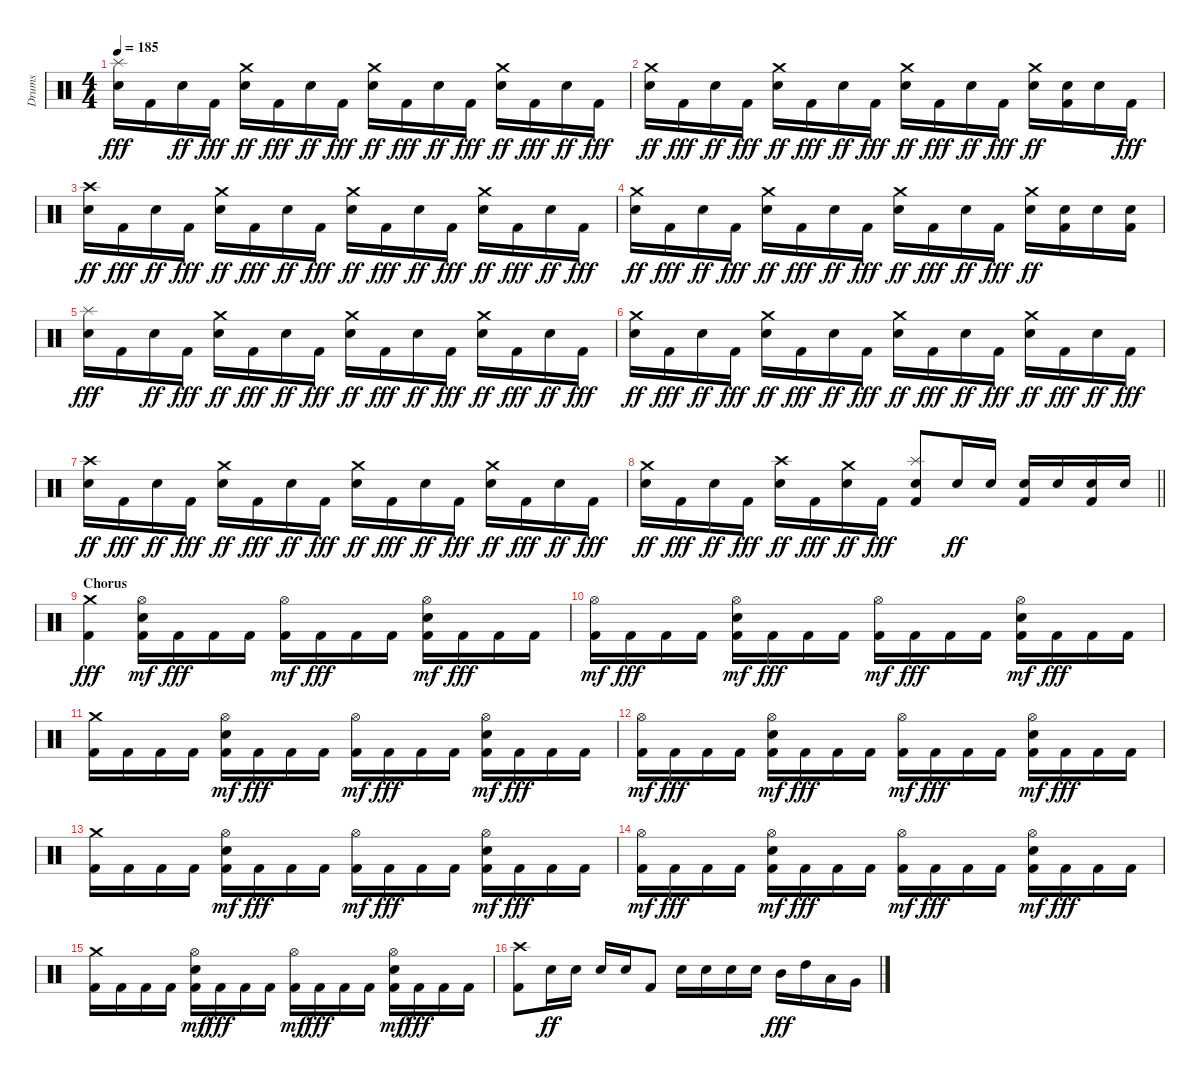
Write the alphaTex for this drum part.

\track ("Drums" "Drums") {instrument percussion}
\staff {score}
\articulation defaults
\ts (4 4)
\tempo 185
\clef neutral
\ks c
("Snare (hit) 2" "Splash (hit)").16{dy fff} "Kick (hit) 2".16 "Snare (hit) 2".16{dy ff} "Kick (hit) 2".16{dy fff} ("Snare (hit) 2" "Crash medium (hit)").16{dy ff} "Kick (hit) 2".16{dy fff} "Snare (hit) 2".16{dy ff} "Kick (hit) 2".16{dy fff} ("Snare (hit) 2" "Crash medium (hit)").16{dy ff} "Kick (hit) 2".16{dy fff} "Snare (hit) 2".16{dy ff} "Kick (hit) 2".16{dy fff} ("Snare (hit) 2" "Crash medium (hit)").16{dy ff} "Kick (hit) 2".16{dy fff} "Snare (hit) 2".16{dy ff} "Kick (hit) 2".16{dy fff} |
("Snare (hit) 2" "Crash medium (hit)").16{dy ff} "Kick (hit) 2".16{dy fff} "Snare (hit) 2".16{dy ff} "Kick (hit) 2".16{dy fff} ("Snare (hit) 2" "Crash medium (hit)").16{dy ff} "Kick (hit) 2".16{dy fff} "Snare (hit) 2".16{dy ff} "Kick (hit) 2".16{dy fff} ("Snare (hit) 2" "Crash medium (hit)").16{dy ff} "Kick (hit) 2".16{dy fff} "Snare (hit) 2".16{dy ff} "Kick (hit) 2".16{dy fff} ("Snare (hit) 2" "Crash medium (hit)").16{dy ff} ("Kick (hit) 2" "Snare (hit) 2").16 "Snare (hit) 2".16 "Kick (hit) 2".16{dy fff} |
("Snare (hit) 2" "Crash high (hit)").16{dy ff} "Kick (hit) 2".16{dy fff} "Snare (hit) 2".16{dy ff} "Kick (hit) 2".16{dy fff} ("Snare (hit) 2" "Crash medium (hit)").16{dy ff} "Kick (hit) 2".16{dy fff} "Snare (hit) 2".16{dy ff} "Kick (hit) 2".16{dy fff} ("Snare (hit) 2" "Crash medium (hit)").16{dy ff} "Kick (hit) 2".16{dy fff} "Snare (hit) 2".16{dy ff} "Kick (hit) 2".16{dy fff} ("Snare (hit) 2" "Crash medium (hit)").16{dy ff} "Kick (hit) 2".16{dy fff} "Snare (hit) 2".16{dy ff} "Kick (hit) 2".16{dy fff} |
("Snare (hit) 2" "Crash medium (hit)").16{dy ff} "Kick (hit) 2".16{dy fff} "Snare (hit) 2".16{dy ff} "Kick (hit) 2".16{dy fff} ("Snare (hit) 2" "Crash medium (hit)").16{dy ff} "Kick (hit) 2".16{dy fff} "Snare (hit) 2".16{dy ff} "Kick (hit) 2".16{dy fff} ("Snare (hit) 2" "Crash medium (hit)").16{dy ff} "Kick (hit) 2".16{dy fff} "Snare (hit) 2".16{dy ff} "Kick (hit) 2".16{dy fff} ("Snare (hit) 2" "Crash medium (hit)").16{dy ff} ("Kick (hit) 2" "Snare (hit) 2").16 "Snare (hit) 2".16 ("Kick (hit) 2" "Snare (hit) 2").16 |
("Snare (hit) 2" "Splash (hit)").16{dy fff} "Kick (hit) 2".16 "Snare (hit) 2".16{dy ff} "Kick (hit) 2".16{dy fff} ("Snare (hit) 2" "Crash medium (hit)").16{dy ff} "Kick (hit) 2".16{dy fff} "Snare (hit) 2".16{dy ff} "Kick (hit) 2".16{dy fff} ("Snare (hit) 2" "Crash medium (hit)").16{dy ff} "Kick (hit) 2".16{dy fff} "Snare (hit) 2".16{dy ff} "Kick (hit) 2".16{dy fff} ("Snare (hit) 2" "Crash medium (hit)").16{dy ff} "Kick (hit) 2".16{dy fff} "Snare (hit) 2".16{dy ff} "Kick (hit) 2".16{dy fff} |
("Snare (hit) 2" "Crash medium (hit)").16{dy ff} "Kick (hit) 2".16{dy fff} "Snare (hit) 2".16{dy ff} "Kick (hit) 2".16{dy fff} ("Snare (hit) 2" "Crash medium (hit)").16{dy ff} "Kick (hit) 2".16{dy fff} "Snare (hit) 2".16{dy ff} "Kick (hit) 2".16{dy fff} ("Snare (hit) 2" "Crash medium (hit)").16{dy ff} "Kick (hit) 2".16{dy fff} "Snare (hit) 2".16{dy ff} "Kick (hit) 2".16{dy fff} ("Snare (hit) 2" "Crash medium (hit)").16{dy ff} "Kick (hit) 2".16{dy fff} "Snare (hit) 2".16{dy ff} "Kick (hit) 2".16{dy fff} |
("Snare (hit) 2" "Crash high (hit)").16{dy ff} "Kick (hit) 2".16{dy fff} "Snare (hit) 2".16{dy ff} "Kick (hit) 2".16{dy fff} ("Snare (hit) 2" "Crash medium (hit)").16{dy ff} "Kick (hit) 2".16{dy fff} "Snare (hit) 2".16{dy ff} "Kick (hit) 2".16{dy fff} ("Snare (hit) 2" "Crash medium (hit)").16{dy ff} "Kick (hit) 2".16{dy fff} "Snare (hit) 2".16{dy ff} "Kick (hit) 2".16{dy fff} ("Snare (hit) 2" "Crash medium (hit)").16{dy ff} "Kick (hit) 2".16{dy fff} "Snare (hit) 2".16{dy ff} "Kick (hit) 2".16{dy fff} |
\barLineRight lightlight
("Snare (hit) 2" "Crash medium (hit)").16{dy ff} "Kick (hit) 2".16{dy fff} "Snare (hit) 2".16{dy ff} "Kick (hit) 2".16{dy fff} ("Snare (hit) 2" "Crash high (hit)").16{dy ff} "Kick (hit) 2".16{dy fff} ("Snare (hit) 2" "Crash medium (hit)").16{dy ff} "Kick (hit) 2".16{dy fff} ("Kick (hit) 2" "Snare (hit) 2" "Splash (hit)").8 "Snare (hit) 2".16{dy ff} "Snare (hit) 2".16 ("Kick (hit) 2" "Snare (hit) 2").16 "Snare (hit) 2".16 ("Kick (hit) 2" "Snare (hit) 2").16 "Snare (hit) 2".16 |
\section ("" "Chorus")
("Kick (hit) 2" "Crash medium (hit)").4{dy fff} ("Kick (hit) 2" "Snare (hit) 2" "Hi-Hat (open)").16{dy mf} "Kick (hit) 2".16{dy fff} "Kick (hit) 2".16 "Kick (hit) 2".16 ("Kick (hit) 2" "Hi-Hat (open)").16{dy mf} "Kick (hit) 2".16{dy fff} "Kick (hit) 2".16 "Kick (hit) 2".16 ("Kick (hit) 2" "Snare (hit) 2" "Hi-Hat (open)").16{dy mf} "Kick (hit) 2".16{dy fff} "Kick (hit) 2".16 "Kick (hit) 2".16 |
("Kick (hit) 2" "Hi-Hat (open)").16{dy mf} "Kick (hit) 2".16{dy fff} "Kick (hit) 2".16 "Kick (hit) 2".16 ("Kick (hit) 2" "Snare (hit) 2" "Hi-Hat (open)").16{dy mf} "Kick (hit) 2".16{dy fff} "Kick (hit) 2".16 "Kick (hit) 2".16 ("Kick (hit) 2" "Hi-Hat (open)").16{dy mf} "Kick (hit) 2".16{dy fff} "Kick (hit) 2".16 "Kick (hit) 2".16 ("Kick (hit) 2" "Snare (hit) 2" "Hi-Hat (open)").16{dy mf} "Kick (hit) 2".16{dy fff} "Kick (hit) 2".16 "Kick (hit) 2".16 |
("Kick (hit) 2" "Crash medium (hit)").16 "Kick (hit) 2".16 "Kick (hit) 2".16 "Kick (hit) 2".16 ("Kick (hit) 2" "Snare (hit) 2" "Hi-Hat (open)").16{dy mf} "Kick (hit) 2".16{dy fff} "Kick (hit) 2".16 "Kick (hit) 2".16 ("Kick (hit) 2" "Hi-Hat (open)").16{dy mf} "Kick (hit) 2".16{dy fff} "Kick (hit) 2".16 "Kick (hit) 2".16 ("Kick (hit) 2" "Snare (hit) 2" "Hi-Hat (open)").16{dy mf} "Kick (hit) 2".16{dy fff} "Kick (hit) 2".16 "Kick (hit) 2".16 |
("Kick (hit) 2" "Hi-Hat (open)").16{dy mf} "Kick (hit) 2".16{dy fff} "Kick (hit) 2".16 "Kick (hit) 2".16 ("Kick (hit) 2" "Snare (hit) 2" "Hi-Hat (open)").16{dy mf} "Kick (hit) 2".16{dy fff} "Kick (hit) 2".16 "Kick (hit) 2".16 ("Kick (hit) 2" "Hi-Hat (open)").16{dy mf} "Kick (hit) 2".16{dy fff} "Kick (hit) 2".16 "Kick (hit) 2".16 ("Kick (hit) 2" "Snare (hit) 2" "Hi-Hat (open)").16{dy mf} "Kick (hit) 2".16{dy fff} "Kick (hit) 2".16 "Kick (hit) 2".16 |
("Kick (hit) 2" "Crash medium (hit)").16 "Kick (hit) 2".16 "Kick (hit) 2".16 "Kick (hit) 2".16 ("Kick (hit) 2" "Snare (hit) 2" "Hi-Hat (open)").16{dy mf} "Kick (hit) 2".16{dy fff} "Kick (hit) 2".16 "Kick (hit) 2".16 ("Kick (hit) 2" "Hi-Hat (open)").16{dy mf} "Kick (hit) 2".16{dy fff} "Kick (hit) 2".16 "Kick (hit) 2".16 ("Kick (hit) 2" "Snare (hit) 2" "Hi-Hat (open)").16{dy mf} "Kick (hit) 2".16{dy fff} "Kick (hit) 2".16 "Kick (hit) 2".16 |
("Kick (hit) 2" "Hi-Hat (open)").16{dy mf} "Kick (hit) 2".16{dy fff} "Kick (hit) 2".16 "Kick (hit) 2".16 ("Kick (hit) 2" "Snare (hit) 2" "Hi-Hat (open)").16{dy mf} "Kick (hit) 2".16{dy fff} "Kick (hit) 2".16 "Kick (hit) 2".16 ("Kick (hit) 2" "Hi-Hat (open)").16{dy mf} "Kick (hit) 2".16{dy fff} "Kick (hit) 2".16 "Kick (hit) 2".16 ("Kick (hit) 2" "Snare (hit) 2" "Hi-Hat (open)").16{dy mf} "Kick (hit) 2".16{dy fff} "Kick (hit) 2".16 "Kick (hit) 2".16 |
("Kick (hit) 2" "Crash medium (hit)").16 "Kick (hit) 2".16 "Kick (hit) 2".16 "Kick (hit) 2".16 ("Kick (hit) 2" "Snare (hit) 2" "Hi-Hat (open)").16{dy mf} "Kick (hit) 2".16{dy fff} "Kick (hit) 2".16 "Kick (hit) 2".16 ("Kick (hit) 2" "Hi-Hat (open)").16{dy mf} "Kick (hit) 2".16{dy fff} "Kick (hit) 2".16 "Kick (hit) 2".16 ("Kick (hit) 2" "Snare (hit) 2" "Hi-Hat (open)").16{dy mf} "Kick (hit) 2".16{dy fff} "Kick (hit) 2".16 "Kick (hit) 2".16 |
("Kick (hit) 2" "Crash high (hit)").8 "Snare (hit) 2".16{dy ff} "Snare (hit) 2".16 "Snare (hit) 2".16 "Snare (hit) 2".16 "Kick (hit) 2".8 "Snare (hit) 2".16 "Snare (hit) 2".16 "Snare (hit) 2".16 "Snare (hit) 2".16 "Mid Tom (hit)".16{dy fff} "High Tom (hit)".16 "Low Tom (hit)".16 "Very Low Tom (hit)".16
